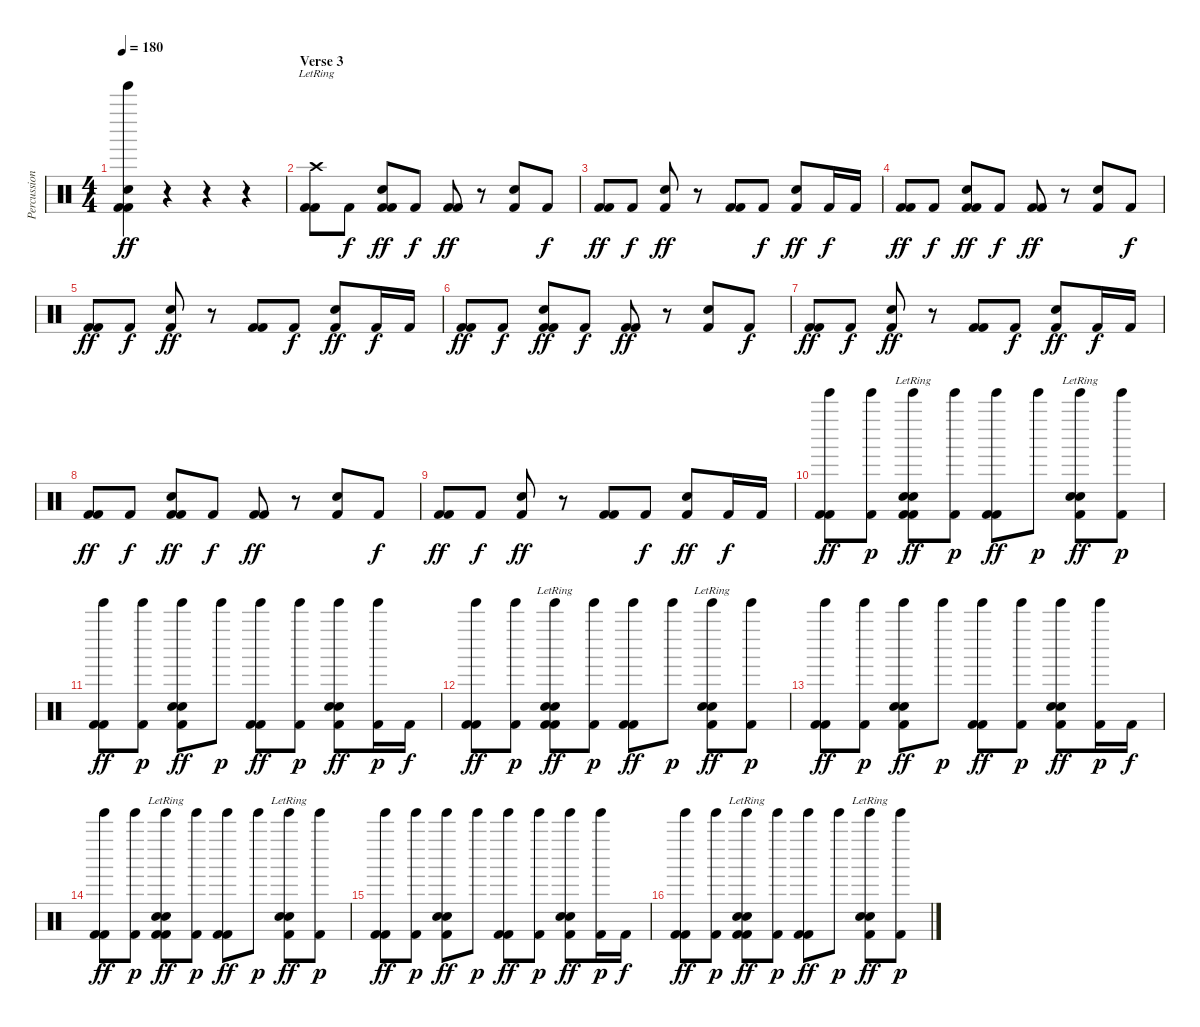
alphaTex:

\track ("Percussion" "Percussion") {instrument percussion}
\staff {score}
\articulation defaults
\ts (4 4)
\tempo 180
\clef neutral
\ks c
("Tinkle Bell (hit)" "Electric Snare (hit)" "Kick (hit) 2" "Kick (hit) 2").4{dy ff} r.4 r.4 r.4 |
\section ("" "Verse 3")
("Crash high (hit)"{lr} "Kick (hit) 2" "Kick (hit) 2").8 "Kick (hit) 2".8{dy f} ("Electric Snare (hit)" "Kick (hit) 2" "Kick (hit) 2").8{dy ff} "Kick (hit) 2".8{dy f} ("Kick (hit) 2" "Kick (hit) 2").8{dy ff} r.8 ("Electric Snare (hit)" "Kick (hit) 2").8 "Kick (hit) 2".8{dy f} |
("Kick (hit) 2" "Kick (hit) 2").8{dy ff} "Kick (hit) 2".8{dy f} ("Electric Snare (hit)" "Kick (hit) 2").8{dy ff} r.8 ("Kick (hit) 2" "Kick (hit) 2").8 "Kick (hit) 2".8{dy f} ("Electric Snare (hit)" "Kick (hit) 2").8{dy ff} "Kick (hit) 2".16{dy f} "Kick (hit) 2".16 |
("Kick (hit) 2" "Kick (hit) 2").8{dy ff} "Kick (hit) 2".8{dy f} ("Electric Snare (hit)" "Kick (hit) 2" "Kick (hit) 2").8{dy ff} "Kick (hit) 2".8{dy f} ("Kick (hit) 2" "Kick (hit) 2").8{dy ff} r.8 ("Electric Snare (hit)" "Kick (hit) 2").8 "Kick (hit) 2".8{dy f} |
("Kick (hit) 2" "Kick (hit) 2").8{dy ff} "Kick (hit) 2".8{dy f} ("Electric Snare (hit)" "Kick (hit) 2").8{dy ff} r.8 ("Kick (hit) 2" "Kick (hit) 2").8 "Kick (hit) 2".8{dy f} ("Electric Snare (hit)" "Kick (hit) 2").8{dy ff} "Kick (hit) 2".16{dy f} "Kick (hit) 2".16 |
("Kick (hit) 2" "Kick (hit) 2").8{dy ff} "Kick (hit) 2".8{dy f} ("Electric Snare (hit)" "Kick (hit) 2" "Kick (hit) 2").8{dy ff} "Kick (hit) 2".8{dy f} ("Kick (hit) 2" "Kick (hit) 2").8{dy ff} r.8 ("Electric Snare (hit)" "Kick (hit) 2").8 "Kick (hit) 2".8{dy f} |
("Kick (hit) 2" "Kick (hit) 2").8{dy ff} "Kick (hit) 2".8{dy f} ("Electric Snare (hit)" "Kick (hit) 2").8{dy ff} r.8 ("Kick (hit) 2" "Kick (hit) 2").8 "Kick (hit) 2".8{dy f} ("Electric Snare (hit)" "Kick (hit) 2").8{dy ff} "Kick (hit) 2".16{dy f} "Kick (hit) 2".16 |
("Kick (hit) 2" "Kick (hit) 2").8{dy ff} "Kick (hit) 2".8{dy f} ("Electric Snare (hit)" "Kick (hit) 2" "Kick (hit) 2").8{dy ff} "Kick (hit) 2".8{dy f} ("Kick (hit) 2" "Kick (hit) 2").8{dy ff} r.8 ("Electric Snare (hit)" "Kick (hit) 2").8 "Kick (hit) 2".8{dy f} |
("Kick (hit) 2" "Kick (hit) 2").8{dy ff} "Kick (hit) 2".8{dy f} ("Electric Snare (hit)" "Kick (hit) 2").8{dy ff} r.8 ("Kick (hit) 2" "Kick (hit) 2").8 "Kick (hit) 2".8{dy f} ("Electric Snare (hit)" "Kick (hit) 2").8{dy ff} "Kick (hit) 2".16{dy f} "Kick (hit) 2".16 |
("Tinkle Bell (hit)" "Kick (hit) 2" "Kick (hit) 2").8{dy ff} ("Tinkle Bell (hit)" "Kick (hit) 2").8{dy p} ("Tinkle Bell (hit)" "Snare (hit) 2"{lr} "Electric Snare (hit)" "Kick (hit) 2" "Kick (hit) 2").8{dy ff} ("Tinkle Bell (hit)" "Kick (hit) 2").8{dy p} ("Tinkle Bell (hit)" "Kick (hit) 2" "Kick (hit) 2").8{dy ff} "Tinkle Bell (hit)".8{dy p} ("Tinkle Bell (hit)" "Snare (hit) 2"{lr} "Electric Snare (hit)" "Kick (hit) 2").8{dy ff} ("Tinkle Bell (hit)" "Kick (hit) 2").8{dy p} |
("Tinkle Bell (hit)" "Kick (hit) 2" "Kick (hit) 2").8{dy ff} ("Tinkle Bell (hit)" "Kick (hit) 2").8{dy p} ("Tinkle Bell (hit)" "Snare (hit) 2" "Electric Snare (hit)" "Kick (hit) 2").8{dy ff} "Tinkle Bell (hit)".8{dy p} ("Tinkle Bell (hit)" "Kick (hit) 2" "Kick (hit) 2").8{dy ff} ("Tinkle Bell (hit)" "Kick (hit) 2").8{dy p} ("Tinkle Bell (hit)" "Snare (hit) 2" "Electric Snare (hit)" "Kick (hit) 2").8{dy ff} ("Tinkle Bell (hit)" "Kick (hit) 2").16{dy p} "Kick (hit) 2".16{dy f} |
("Tinkle Bell (hit)" "Kick (hit) 2" "Kick (hit) 2").8{dy ff} ("Tinkle Bell (hit)" "Kick (hit) 2").8{dy p} ("Tinkle Bell (hit)" "Snare (hit) 2"{lr} "Electric Snare (hit)" "Kick (hit) 2" "Kick (hit) 2").8{dy ff} ("Tinkle Bell (hit)" "Kick (hit) 2").8{dy p} ("Tinkle Bell (hit)" "Kick (hit) 2" "Kick (hit) 2").8{dy ff} "Tinkle Bell (hit)".8{dy p} ("Tinkle Bell (hit)" "Snare (hit) 2"{lr} "Electric Snare (hit)" "Kick (hit) 2").8{dy ff} ("Tinkle Bell (hit)" "Kick (hit) 2").8{dy p} |
("Tinkle Bell (hit)" "Kick (hit) 2" "Kick (hit) 2").8{dy ff} ("Tinkle Bell (hit)" "Kick (hit) 2").8{dy p} ("Tinkle Bell (hit)" "Snare (hit) 2" "Electric Snare (hit)" "Kick (hit) 2").8{dy ff} "Tinkle Bell (hit)".8{dy p} ("Tinkle Bell (hit)" "Kick (hit) 2" "Kick (hit) 2").8{dy ff} ("Tinkle Bell (hit)" "Kick (hit) 2").8{dy p} ("Tinkle Bell (hit)" "Snare (hit) 2" "Electric Snare (hit)" "Kick (hit) 2").8{dy ff} ("Tinkle Bell (hit)" "Kick (hit) 2").16{dy p} "Kick (hit) 2".16{dy f} |
("Tinkle Bell (hit)" "Kick (hit) 2" "Kick (hit) 2").8{dy ff} ("Tinkle Bell (hit)" "Kick (hit) 2").8{dy p} ("Tinkle Bell (hit)" "Snare (hit) 2"{lr} "Electric Snare (hit)" "Kick (hit) 2" "Kick (hit) 2").8{dy ff} ("Tinkle Bell (hit)" "Kick (hit) 2").8{dy p} ("Tinkle Bell (hit)" "Kick (hit) 2" "Kick (hit) 2").8{dy ff} "Tinkle Bell (hit)".8{dy p} ("Tinkle Bell (hit)" "Snare (hit) 2"{lr} "Electric Snare (hit)" "Kick (hit) 2").8{dy ff} ("Tinkle Bell (hit)" "Kick (hit) 2").8{dy p} |
("Tinkle Bell (hit)" "Kick (hit) 2" "Kick (hit) 2").8{dy ff} ("Tinkle Bell (hit)" "Kick (hit) 2").8{dy p} ("Tinkle Bell (hit)" "Snare (hit) 2" "Electric Snare (hit)" "Kick (hit) 2").8{dy ff} "Tinkle Bell (hit)".8{dy p} ("Tinkle Bell (hit)" "Kick (hit) 2" "Kick (hit) 2").8{dy ff} ("Tinkle Bell (hit)" "Kick (hit) 2").8{dy p} ("Tinkle Bell (hit)" "Snare (hit) 2" "Electric Snare (hit)" "Kick (hit) 2").8{dy ff} ("Tinkle Bell (hit)" "Kick (hit) 2").16{dy p} "Kick (hit) 2".16{dy f} |
("Tinkle Bell (hit)" "Kick (hit) 2" "Kick (hit) 2").8{dy ff} ("Tinkle Bell (hit)" "Kick (hit) 2").8{dy p} ("Tinkle Bell (hit)" "Snare (hit) 2"{lr} "Electric Snare (hit)" "Kick (hit) 2" "Kick (hit) 2").8{dy ff} ("Tinkle Bell (hit)" "Kick (hit) 2").8{dy p} ("Tinkle Bell (hit)" "Kick (hit) 2" "Kick (hit) 2").8{dy ff} "Tinkle Bell (hit)".8{dy p} ("Tinkle Bell (hit)" "Snare (hit) 2"{lr} "Electric Snare (hit)" "Kick (hit) 2").8{dy ff} ("Tinkle Bell (hit)" "Kick (hit) 2").8{dy p}
